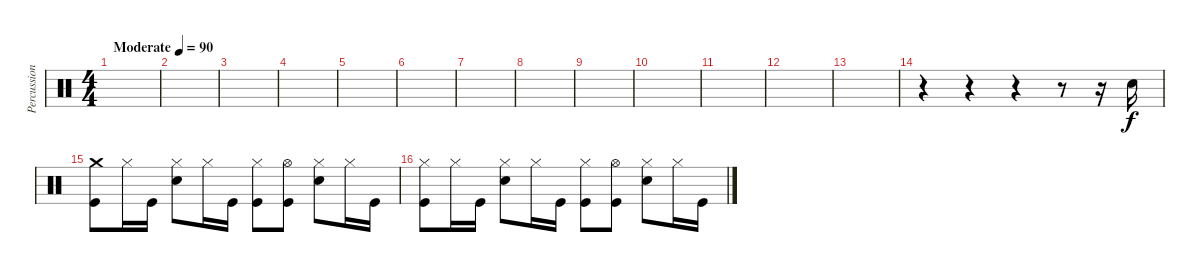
\track ("Percussion" "Percussion") {instrument percussion}
\staff {score}
\articulation defaults
\ts (4 4)
\tempo (90 "Moderate")
\clef neutral
\ks c
|
|
|
|
|
|
|
|
|
|
|
|
|
r.4 r.4 r.4 r.8 r.16 "Electric Snare (hit)".16 |
("Crash medium (hit)" "Kick (hit)").8 "Hi-Hat (closed)".16 "Kick (hit)".16 ("Hi-Hat (closed)" "Electric Snare (hit)").8 "Hi-Hat (closed)".16 "Kick (hit)".16 ("Hi-Hat (closed)" "Kick (hit)").8 ("Hi-Hat (open)" "Kick (hit)").8 ("Hi-Hat (closed)" "Electric Snare (hit)").8 "Hi-Hat (closed)".16 "Kick (hit)".16 |
("Hi-Hat (closed)" "Kick (hit)").8 "Hi-Hat (closed)".16 "Kick (hit)".16 ("Hi-Hat (closed)" "Electric Snare (hit)").8 "Hi-Hat (closed)".16 "Kick (hit)".16 ("Hi-Hat (closed)" "Kick (hit)").8 ("Hi-Hat (open)" "Kick (hit)").8 ("Hi-Hat (closed)" "Electric Snare (hit)").8 "Hi-Hat (closed)".16 "Kick (hit)".16
